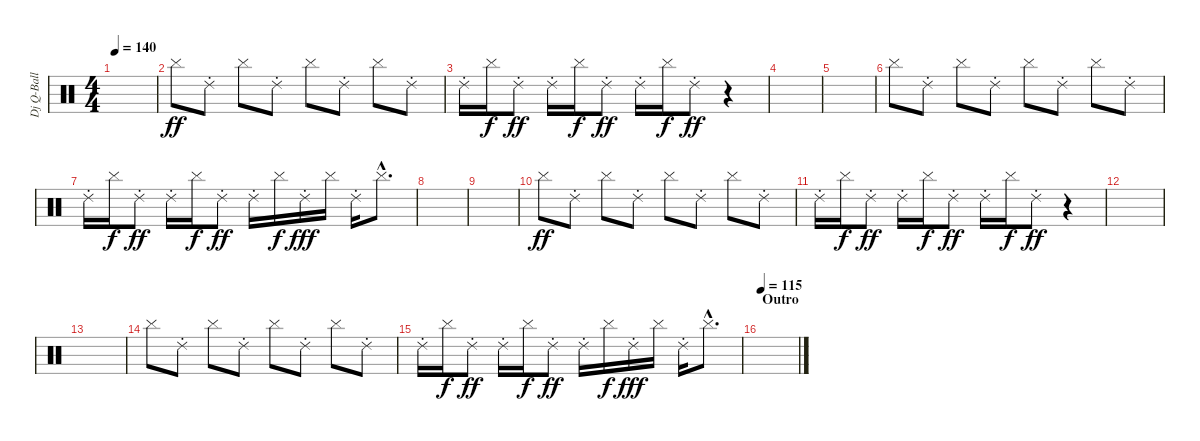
\track ("Dj Q-Ball" "Dj Q-Ball") {instrument percussion}
\staff {score}
\articulation defaults
\ts (4 4)
\tempo 140
\clef neutral
\ks c
|
"Cymbal (hit)".8{dy ff} "Ride (choke) 2".8 "Cymbal (hit)".8 "Ride (choke) 2".8 "Cymbal (hit)".8 "Ride (choke) 2".8 "Cymbal (hit)".8 "Ride (choke) 2".8 |
"Ride (choke) 2".16 "Cymbal (hit)".16{dy f} "Ride (choke) 2".8{dy ff} "Ride (choke) 2".16 "Cymbal (hit)".16{dy f} "Ride (choke) 2".8{dy ff} "Ride (choke) 2".16 "Cymbal (hit)".16{dy f} "Ride (choke) 2".8{dy ff} r.4 |
|
|
"Cymbal (hit)".8 "Ride (choke) 2".8 "Cymbal (hit)".8 "Ride (choke) 2".8 "Cymbal (hit)".8 "Ride (choke) 2".8 "Cymbal (hit)".8 "Ride (choke) 2".8 |
"Ride (choke) 2".16 "Cymbal (hit)".16{dy f} "Ride (choke) 2".8{dy ff} "Ride (choke) 2".16 "Cymbal (hit)".16{dy f} "Ride (choke) 2".8{dy ff} "Ride (choke) 2".16 "Cymbal (hit)".16{dy f} "Ride (choke) 2".16{dy fff} "Cymbal (hit)".16 "Ride (choke) 2".16 "Cymbal (hit)"{hac}.8{d} |
|
|
"Cymbal (hit)".8{dy ff} "Ride (choke) 2".8 "Cymbal (hit)".8 "Ride (choke) 2".8 "Cymbal (hit)".8 "Ride (choke) 2".8 "Cymbal (hit)".8 "Ride (choke) 2".8 |
"Ride (choke) 2".16 "Cymbal (hit)".16{dy f} "Ride (choke) 2".8{dy ff} "Ride (choke) 2".16 "Cymbal (hit)".16{dy f} "Ride (choke) 2".8{dy ff} "Ride (choke) 2".16 "Cymbal (hit)".16{dy f} "Ride (choke) 2".8{dy ff} r.4 |
|
|
"Cymbal (hit)".8 "Ride (choke) 2".8 "Cymbal (hit)".8 "Ride (choke) 2".8 "Cymbal (hit)".8 "Ride (choke) 2".8 "Cymbal (hit)".8 "Ride (choke) 2".8 |
"Ride (choke) 2".16 "Cymbal (hit)".16{dy f} "Ride (choke) 2".8{dy ff} "Ride (choke) 2".16 "Cymbal (hit)".16{dy f} "Ride (choke) 2".8{dy ff} "Ride (choke) 2".16 "Cymbal (hit)".16{dy f} "Ride (choke) 2".16{dy fff} "Cymbal (hit)".16 "Ride (choke) 2".16 "Cymbal (hit)"{hac}.8{d} |
\section ("" "Outro")
\tempo 115
